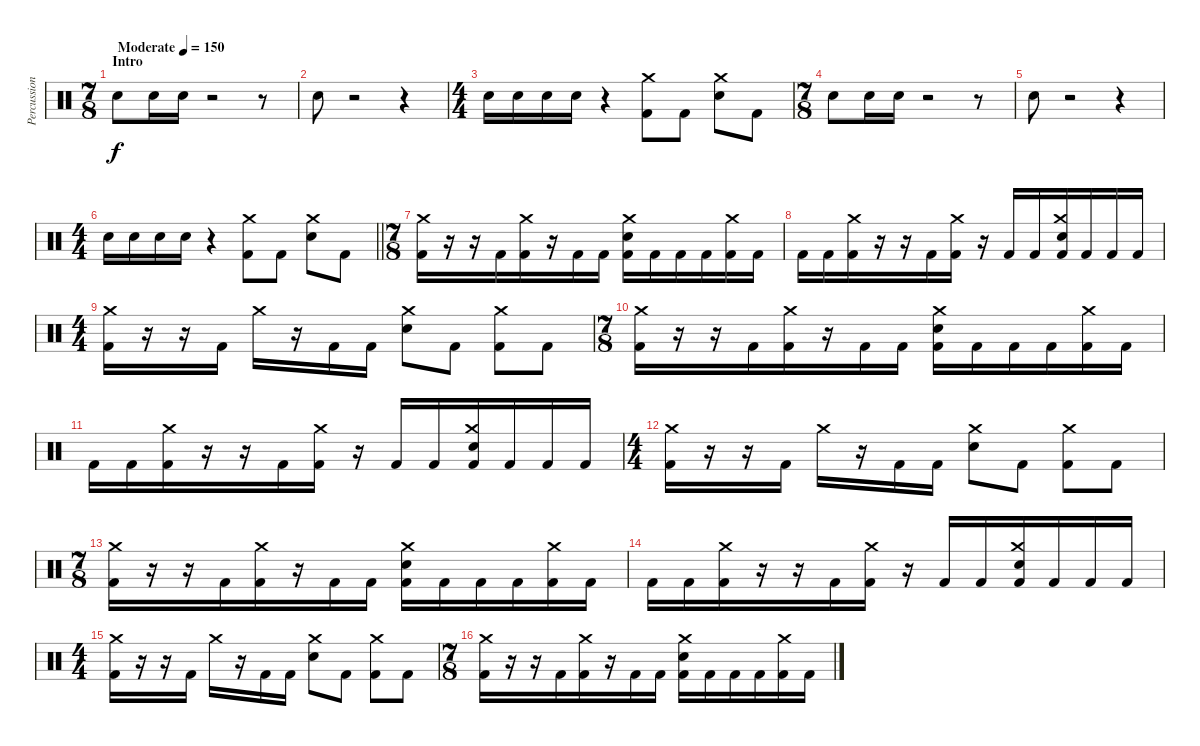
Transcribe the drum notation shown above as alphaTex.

\track ("Percussion" "Percussion") {instrument percussion}
\staff {score}
\articulation defaults
\ts (7 8)
\section ("" "Intro")
\tempo (150 "Moderate")
\clef neutral
\ks c "Electric Snare (hit)".8{dy f} "Electric Snare (hit)".16 "Electric Snare (hit)".16
r.2 r.8 |
"Electric Snare (hit)".8 r.2 r.4 |
\ts (4 4)
"Electric Snare (hit)".16 "Electric Snare (hit)".16 "Electric Snare (hit)".16 "Electric Snare (hit)".16 r.4 ("Crash medium (hit)" "Kick (hit) 2").8 "Kick (hit) 2".8 ("Crash medium (hit)" "Electric Snare (hit)").8 "Kick (hit) 2".8 |
\ts (7 8)
"Electric Snare (hit)".8 "Electric Snare (hit)".16 "Electric Snare (hit)".16 r.2 r.8 |
"Electric Snare (hit)".8 r.2 r.4 |
\ts (4 4)
\barLineRight lightlight "Electric Snare (hit)".16 "Electric Snare (hit)".16 "Electric Snare (hit)".16 "Electric Snare (hit)".16
r.4 ("Crash medium (hit)" "Kick (hit) 2").8 "Kick (hit) 2".8 ("Crash medium (hit)" "Electric Snare (hit)").8 "Kick (hit) 2".8 |
\ts (7 8)
\section ("" "")
("Crash medium (hit)" "Kick (hit) 2").16 r.16 r.16 "Kick (hit) 2".16 ("Crash medium (hit)" "Kick (hit) 2").16 r.16 "Kick (hit) 2".16 "Kick (hit) 2".16 ("Crash medium (hit)" "Electric Snare (hit)" "Kick (hit) 2").16 "Kick (hit) 2".16 "Kick (hit) 2".16 "Kick (hit) 2".16 ("Crash medium (hit)" "Kick (hit) 2").16 "Kick (hit) 2".16 |
"Kick (hit) 2".16 "Kick (hit) 2".16 ("Crash medium (hit)" "Kick (hit) 2").16 r.16 r.16 "Kick (hit) 2".16 ("Crash medium (hit)" "Kick (hit) 2").16 r.16 "Kick (hit) 2".16 "Kick (hit) 2".16 ("Crash medium (hit)" "Electric Snare (hit)" "Kick (hit) 2").16 "Kick (hit) 2".16 "Kick (hit) 2".16 "Kick (hit) 2".16 |
\ts (4 4)
("Crash medium (hit)" "Kick (hit) 2").16 r.16 r.16 "Kick (hit) 2".16 "Crash medium (hit)".16 r.16 "Kick (hit) 2".16 "Kick (hit) 2".16 ("Crash medium (hit)" "Electric Snare (hit)").8 "Kick (hit) 2".8 ("Crash medium (hit)" "Kick (hit) 2").8 "Kick (hit) 2".8 |
\ts (7 8)
("Crash medium (hit)" "Kick (hit) 2").16 r.16 r.16 "Kick (hit) 2".16 ("Crash medium (hit)" "Kick (hit) 2").16 r.16 "Kick (hit) 2".16 "Kick (hit) 2".16 ("Crash medium (hit)" "Electric Snare (hit)" "Kick (hit) 2").16 "Kick (hit) 2".16 "Kick (hit) 2".16 "Kick (hit) 2".16 ("Crash medium (hit)" "Kick (hit) 2").16 "Kick (hit) 2".16 |
"Kick (hit) 2".16 "Kick (hit) 2".16 ("Crash medium (hit)" "Kick (hit) 2").16 r.16 r.16 "Kick (hit) 2".16 ("Crash medium (hit)" "Kick (hit) 2").16 r.16 "Kick (hit) 2".16 "Kick (hit) 2".16 ("Crash medium (hit)" "Electric Snare (hit)" "Kick (hit) 2").16 "Kick (hit) 2".16 "Kick (hit) 2".16 "Kick (hit) 2".16 |
\ts (4 4)
("Crash medium (hit)" "Kick (hit) 2").16 r.16 r.16 "Kick (hit) 2".16 "Crash medium (hit)".16 r.16 "Kick (hit) 2".16 "Kick (hit) 2".16 ("Crash medium (hit)" "Electric Snare (hit)").8 "Kick (hit) 2".8 ("Crash medium (hit)" "Kick (hit) 2").8 "Kick (hit) 2".8 |
\ts (7 8)
("Crash medium (hit)" "Kick (hit) 2").16 r.16 r.16 "Kick (hit) 2".16 ("Crash medium (hit)" "Kick (hit) 2").16 r.16 "Kick (hit) 2".16 "Kick (hit) 2".16 ("Crash medium (hit)" "Electric Snare (hit)" "Kick (hit) 2").16 "Kick (hit) 2".16 "Kick (hit) 2".16 "Kick (hit) 2".16 ("Crash medium (hit)" "Kick (hit) 2").16 "Kick (hit) 2".16 |
"Kick (hit) 2".16 "Kick (hit) 2".16 ("Crash medium (hit)" "Kick (hit) 2").16 r.16 r.16 "Kick (hit) 2".16 ("Crash medium (hit)" "Kick (hit) 2").16 r.16 "Kick (hit) 2".16 "Kick (hit) 2".16 ("Crash medium (hit)" "Electric Snare (hit)" "Kick (hit) 2").16 "Kick (hit) 2".16 "Kick (hit) 2".16 "Kick (hit) 2".16 |
\ts (4 4)
("Crash medium (hit)" "Kick (hit) 2").16 r.16 r.16 "Kick (hit) 2".16 "Crash medium (hit)".16 r.16 "Kick (hit) 2".16 "Kick (hit) 2".16 ("Crash medium (hit)" "Electric Snare (hit)").8 "Kick (hit) 2".8 ("Crash medium (hit)" "Kick (hit) 2").8 "Kick (hit) 2".8 |
\ts (7 8)
("Crash medium (hit)" "Kick (hit) 2").16 r.16 r.16 "Kick (hit) 2".16 ("Crash medium (hit)" "Kick (hit) 2").16 r.16 "Kick (hit) 2".16 "Kick (hit) 2".16 ("Crash medium (hit)" "Electric Snare (hit)" "Kick (hit) 2").16 "Kick (hit) 2".16 "Kick (hit) 2".16 "Kick (hit) 2".16 ("Crash medium (hit)" "Kick (hit) 2").16 "Kick (hit) 2".16
